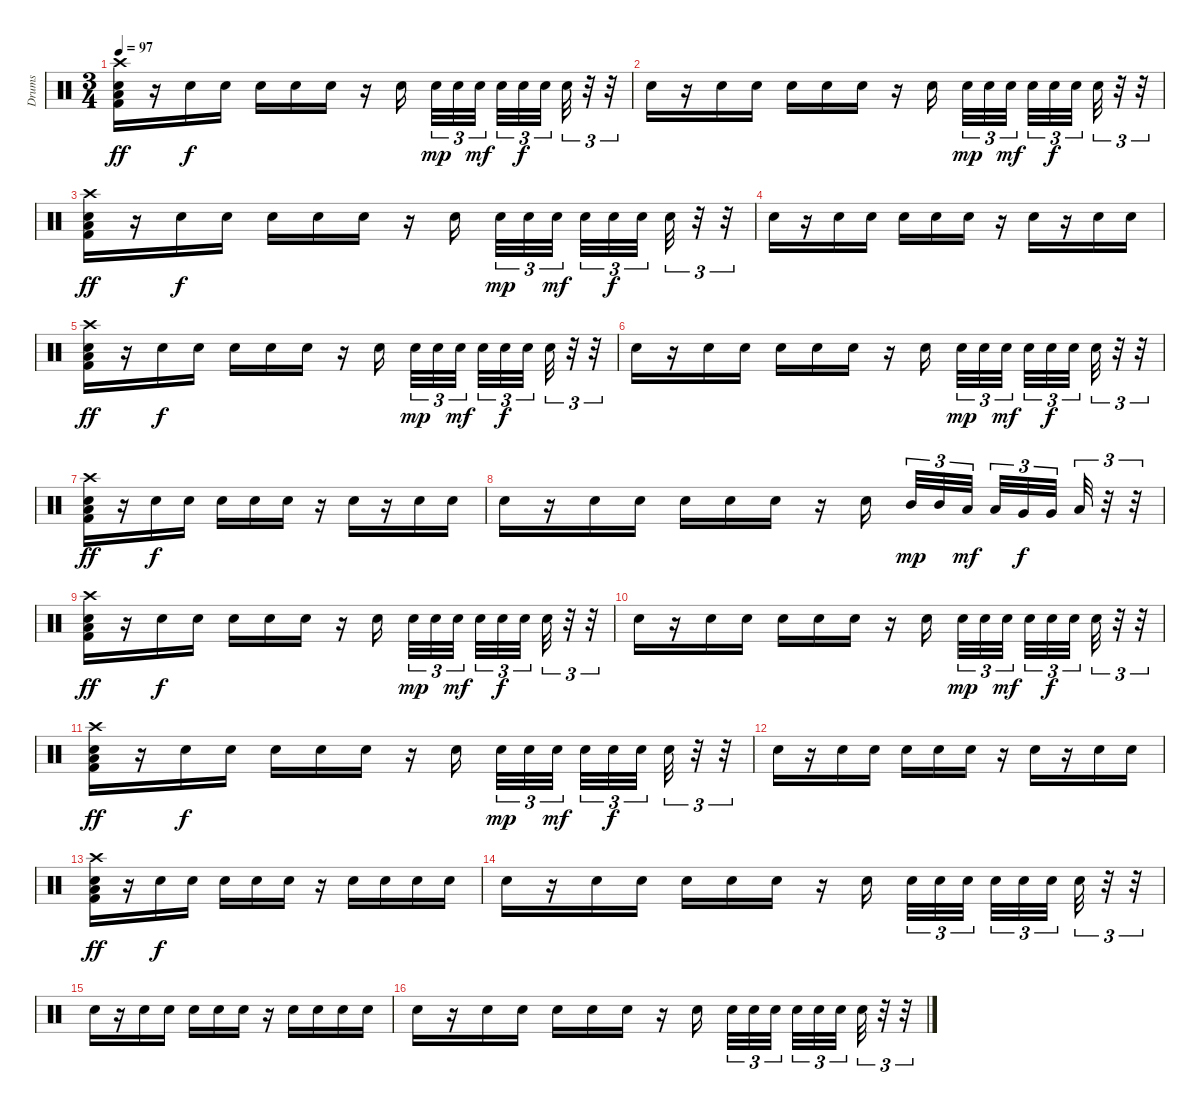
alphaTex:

\track ("Drums" "Drums") {instrument percussion}
\staff {score}
\articulation defaults
\ts (3 4)
\tempo 97
\clef neutral
\ks c
("Crash high (hit)" "Low Floor Tom (hit)" "Electric Snare (hit)" "Kick (hit) 2").16{dy ff} r.16 "Electric Snare (hit)".16{dy f} "Electric Snare (hit)".16 "Electric Snare (hit)".16 "Electric Snare (hit)".16 "Electric Snare (hit)".16 r.16 "Electric Snare (hit)".16 "Electric Snare (hit)".32{tu (3 2) dy mp} "Electric Snare (hit)".32{tu (3 2)} "Electric Snare (hit)".32{tu (3 2) dy mf} "Electric Snare (hit)".32{tu (3 2)} "Electric Snare (hit)".32{tu (3 2) dy f} "Electric Snare (hit)".32{tu (3 2)} "Electric Snare (hit)".32{tu (3 2)} r.32{tu (3 2)} r.32{tu (3 2)} |
"Electric Snare (hit)".16 r.16 "Electric Snare (hit)".16 "Electric Snare (hit)".16 "Electric Snare (hit)".16 "Electric Snare (hit)".16 "Electric Snare (hit)".16 r.16 "Electric Snare (hit)".16 "Electric Snare (hit)".32{tu (3 2) dy mp} "Electric Snare (hit)".32{tu (3 2)} "Electric Snare (hit)".32{tu (3 2) dy mf} "Electric Snare (hit)".32{tu (3 2)} "Electric Snare (hit)".32{tu (3 2) dy f} "Electric Snare (hit)".32{tu (3 2)} "Electric Snare (hit)".32{tu (3 2)} r.32{tu (3 2)} r.32{tu (3 2)} |
("Crash high (hit)" "Low Floor Tom (hit)" "Electric Snare (hit)" "Kick (hit) 2").16{dy ff} r.16 "Electric Snare (hit)".16{dy f} "Electric Snare (hit)".16 "Electric Snare (hit)".16 "Electric Snare (hit)".16 "Electric Snare (hit)".16 r.16 "Electric Snare (hit)".16 "Electric Snare (hit)".32{tu (3 2) dy mp} "Electric Snare (hit)".32{tu (3 2)} "Electric Snare (hit)".32{tu (3 2) dy mf} "Electric Snare (hit)".32{tu (3 2)} "Electric Snare (hit)".32{tu (3 2) dy f} "Electric Snare (hit)".32{tu (3 2)} "Electric Snare (hit)".32{tu (3 2)} r.32{tu (3 2)} r.32{tu (3 2)} |
"Electric Snare (hit)".16 r.16 "Electric Snare (hit)".16 "Electric Snare (hit)".16 "Electric Snare (hit)".16 "Electric Snare (hit)".16 "Electric Snare (hit)".16 r.16 "Electric Snare (hit)".16 r.16 "Electric Snare (hit)".16 "Electric Snare (hit)".16 |
("Crash high (hit)" "Low Floor Tom (hit)" "Electric Snare (hit)" "Kick (hit) 2").16{dy ff} r.16 "Electric Snare (hit)".16{dy f} "Electric Snare (hit)".16 "Electric Snare (hit)".16 "Electric Snare (hit)".16 "Electric Snare (hit)".16 r.16 "Electric Snare (hit)".16 "Electric Snare (hit)".32{tu (3 2) dy mp} "Electric Snare (hit)".32{tu (3 2)} "Electric Snare (hit)".32{tu (3 2) dy mf} "Electric Snare (hit)".32{tu (3 2)} "Electric Snare (hit)".32{tu (3 2) dy f} "Electric Snare (hit)".32{tu (3 2)} "Electric Snare (hit)".32{tu (3 2)} r.32{tu (3 2)} r.32{tu (3 2)} |
"Electric Snare (hit)".16 r.16 "Electric Snare (hit)".16 "Electric Snare (hit)".16 "Electric Snare (hit)".16 "Electric Snare (hit)".16 "Electric Snare (hit)".16 r.16 "Electric Snare (hit)".16 "Electric Snare (hit)".32{tu (3 2) dy mp} "Electric Snare (hit)".32{tu (3 2)} "Electric Snare (hit)".32{tu (3 2) dy mf} "Electric Snare (hit)".32{tu (3 2)} "Electric Snare (hit)".32{tu (3 2) dy f} "Electric Snare (hit)".32{tu (3 2)} "Electric Snare (hit)".32{tu (3 2)} r.32{tu (3 2)} r.32{tu (3 2)} |
("Crash high (hit)" "Low Floor Tom (hit)" "Electric Snare (hit)" "Kick (hit) 2").16{dy ff} r.16 "Electric Snare (hit)".16{dy f} "Electric Snare (hit)".16 "Electric Snare (hit)".16 "Electric Snare (hit)".16 "Electric Snare (hit)".16 r.16 "Electric Snare (hit)".16 r.16 "Electric Snare (hit)".16 "Electric Snare (hit)".16 |
"Electric Snare (hit)".16 r.16 "Electric Snare (hit)".16 "Electric Snare (hit)".16 "Electric Snare (hit)".16 "Electric Snare (hit)".16 "Electric Snare (hit)".16 r.16 "Electric Snare (hit)".16 "Mid Tom (hit)".32{tu (3 2) dy mp} "Mid Tom (hit)".32{tu (3 2)} "Low Tom (hit)".32{tu (3 2) dy mf} "Low Tom (hit)".32{tu (3 2)} "Very Low Tom (hit)".32{tu (3 2) dy f} "Very Low Tom (hit)".32{tu (3 2)} "Low Floor Tom (hit)".32{tu (3 2)} r.32{tu (3 2)} r.32{tu (3 2)} |
("Crash high (hit)" "Low Floor Tom (hit)" "Electric Snare (hit)" "Kick (hit) 2").16{dy ff} r.16 "Electric Snare (hit)".16{dy f} "Electric Snare (hit)".16 "Electric Snare (hit)".16 "Electric Snare (hit)".16 "Electric Snare (hit)".16 r.16 "Electric Snare (hit)".16 "Electric Snare (hit)".32{tu (3 2) dy mp} "Electric Snare (hit)".32{tu (3 2)} "Electric Snare (hit)".32{tu (3 2) dy mf} "Electric Snare (hit)".32{tu (3 2)} "Electric Snare (hit)".32{tu (3 2) dy f} "Electric Snare (hit)".32{tu (3 2)} "Electric Snare (hit)".32{tu (3 2)} r.32{tu (3 2)} r.32{tu (3 2)} |
"Electric Snare (hit)".16 r.16 "Electric Snare (hit)".16 "Electric Snare (hit)".16 "Electric Snare (hit)".16 "Electric Snare (hit)".16 "Electric Snare (hit)".16 r.16 "Electric Snare (hit)".16 "Electric Snare (hit)".32{tu (3 2) dy mp} "Electric Snare (hit)".32{tu (3 2)} "Electric Snare (hit)".32{tu (3 2) dy mf} "Electric Snare (hit)".32{tu (3 2)} "Electric Snare (hit)".32{tu (3 2) dy f} "Electric Snare (hit)".32{tu (3 2)} "Electric Snare (hit)".32{tu (3 2)} r.32{tu (3 2)} r.32{tu (3 2)} |
("Crash high (hit)" "Low Floor Tom (hit)" "Electric Snare (hit)" "Kick (hit) 2").16{dy ff} r.16 "Electric Snare (hit)".16{dy f} "Electric Snare (hit)".16 "Electric Snare (hit)".16 "Electric Snare (hit)".16 "Electric Snare (hit)".16 r.16 "Electric Snare (hit)".16 "Electric Snare (hit)".32{tu (3 2) dy mp} "Electric Snare (hit)".32{tu (3 2)} "Electric Snare (hit)".32{tu (3 2) dy mf} "Electric Snare (hit)".32{tu (3 2)} "Electric Snare (hit)".32{tu (3 2) dy f} "Electric Snare (hit)".32{tu (3 2)} "Electric Snare (hit)".32{tu (3 2)} r.32{tu (3 2)} r.32{tu (3 2)} |
"Electric Snare (hit)".16 r.16 "Electric Snare (hit)".16 "Electric Snare (hit)".16 "Electric Snare (hit)".16 "Electric Snare (hit)".16 "Electric Snare (hit)".16 r.16 "Electric Snare (hit)".16 r.16 "Electric Snare (hit)".16 "Electric Snare (hit)".16 |
("Crash high (hit)" "Low Floor Tom (hit)" "Electric Snare (hit)" "Kick (hit) 2").16{dy ff} r.16 "Electric Snare (hit)".16{dy f} "Electric Snare (hit)".16 "Electric Snare (hit)".16 "Electric Snare (hit)".16 "Electric Snare (hit)".16 r.16 "Electric Snare (hit)".16 "Electric Snare (hit)".16 "Electric Snare (hit)".16 "Electric Snare (hit)".16 |
"Electric Snare (hit)".16 r.16 "Electric Snare (hit)".16 "Electric Snare (hit)".16 "Electric Snare (hit)".16 "Electric Snare (hit)".16 "Electric Snare (hit)".16 r.16 "Electric Snare (hit)".16 "Electric Snare (hit)".32{tu (3 2)} "Electric Snare (hit)".32{tu (3 2)} "Electric Snare (hit)".32{tu (3 2)} "Electric Snare (hit)".32{tu (3 2)} "Electric Snare (hit)".32{tu (3 2)} "Electric Snare (hit)".32{tu (3 2)} "Electric Snare (hit)".32{tu (3 2)} r.32{tu (3 2)} r.32{tu (3 2)} |
"Electric Snare (hit)".16 r.16 "Electric Snare (hit)".16 "Electric Snare (hit)".16 "Electric Snare (hit)".16 "Electric Snare (hit)".16 "Electric Snare (hit)".16 r.16 "Electric Snare (hit)".16 "Electric Snare (hit)".16 "Electric Snare (hit)".16 "Electric Snare (hit)".16 |
"Electric Snare (hit)".16 r.16 "Electric Snare (hit)".16 "Electric Snare (hit)".16 "Electric Snare (hit)".16 "Electric Snare (hit)".16 "Electric Snare (hit)".16 r.16 "Electric Snare (hit)".16 "Electric Snare (hit)".32{tu (3 2)} "Electric Snare (hit)".32{tu (3 2)} "Electric Snare (hit)".32{tu (3 2)} "Electric Snare (hit)".32{tu (3 2)} "Electric Snare (hit)".32{tu (3 2)} "Electric Snare (hit)".32{tu (3 2)} "Electric Snare (hit)".32{tu (3 2)} r.32{tu (3 2)} r.32{tu (3 2)}
